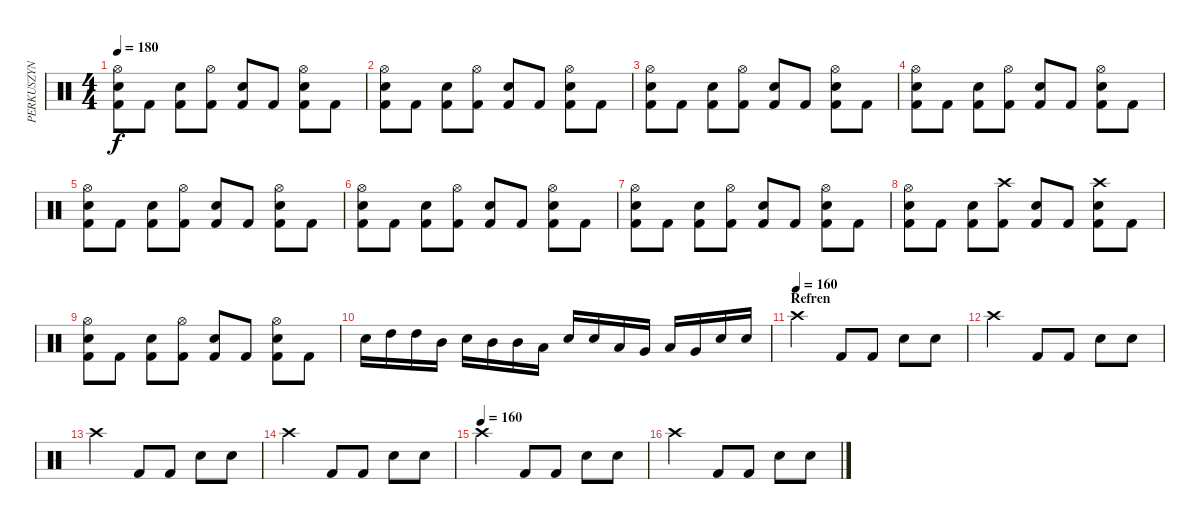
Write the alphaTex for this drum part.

\track ("PERKUSZYN" "PERKUSZYN") {instrument percussion}
\staff {score}
\articulation defaults
\ts (4 4)
\tempo 180
\clef neutral
\ks c
("Kick (hit) 2" "Electric Snare (hit)" "Hi-Hat (open)").8{dy f} "Kick (hit) 2".8 ("Kick (hit) 2" "Electric Snare (hit)").8 ("Kick (hit) 2" "Hi-Hat (open)").8 ("Kick (hit) 2" "Electric Snare (hit)").8 "Kick (hit) 2".8 ("Kick (hit) 2" "Electric Snare (hit)" "Hi-Hat (open)").8 "Kick (hit) 2".8 |
("Kick (hit) 2" "Electric Snare (hit)" "Hi-Hat (open)").8 "Kick (hit) 2".8 ("Kick (hit) 2" "Electric Snare (hit)").8 ("Kick (hit) 2" "Hi-Hat (open)").8 ("Kick (hit) 2" "Electric Snare (hit)").8 "Kick (hit) 2".8 ("Kick (hit) 2" "Electric Snare (hit)" "Hi-Hat (open)").8 "Kick (hit) 2".8 |
("Kick (hit) 2" "Electric Snare (hit)" "Hi-Hat (open)").8 "Kick (hit) 2".8 ("Kick (hit) 2" "Electric Snare (hit)").8 ("Kick (hit) 2" "Hi-Hat (open)").8 ("Kick (hit) 2" "Electric Snare (hit)").8 "Kick (hit) 2".8 ("Kick (hit) 2" "Electric Snare (hit)" "Hi-Hat (open)").8 "Kick (hit) 2".8 |
("Kick (hit) 2" "Electric Snare (hit)" "Hi-Hat (open)").8 "Kick (hit) 2".8 ("Kick (hit) 2" "Electric Snare (hit)").8 ("Kick (hit) 2" "Hi-Hat (open)").8 ("Kick (hit) 2" "Electric Snare (hit)").8 "Kick (hit) 2".8 ("Kick (hit) 2" "Electric Snare (hit)" "Hi-Hat (open)").8 "Kick (hit) 2".8 |
("Kick (hit) 2" "Electric Snare (hit)" "Hi-Hat (open)").8 "Kick (hit) 2".8 ("Kick (hit) 2" "Electric Snare (hit)").8 ("Kick (hit) 2" "Hi-Hat (open)").8 ("Kick (hit) 2" "Electric Snare (hit)").8 "Kick (hit) 2".8 ("Kick (hit) 2" "Electric Snare (hit)" "Hi-Hat (open)").8 "Kick (hit) 2".8 |
("Kick (hit) 2" "Electric Snare (hit)" "Hi-Hat (open)").8 "Kick (hit) 2".8 ("Kick (hit) 2" "Electric Snare (hit)").8 ("Kick (hit) 2" "Hi-Hat (open)").8 ("Kick (hit) 2" "Electric Snare (hit)").8 "Kick (hit) 2".8 ("Kick (hit) 2" "Electric Snare (hit)" "Hi-Hat (open)").8 "Kick (hit) 2".8 |
("Kick (hit) 2" "Electric Snare (hit)" "Hi-Hat (open)").8 "Kick (hit) 2".8 ("Kick (hit) 2" "Electric Snare (hit)").8 ("Kick (hit) 2" "Hi-Hat (open)").8 ("Kick (hit) 2" "Electric Snare (hit)").8 "Kick (hit) 2".8 ("Kick (hit) 2" "Electric Snare (hit)" "Hi-Hat (open)").8 "Kick (hit) 2".8 |
("Kick (hit) 2" "Electric Snare (hit)" "Hi-Hat (open)").8 "Kick (hit) 2".8 ("Kick (hit) 2" "Electric Snare (hit)").8 ("Kick (hit) 2" "Crash high (hit)").8 ("Kick (hit) 2" "Electric Snare (hit)").8 "Kick (hit) 2".8 ("Kick (hit) 2" "Electric Snare (hit)" "Crash high (hit)").8 "Kick (hit) 2".8 |
("Kick (hit) 2" "Electric Snare (hit)" "Hi-Hat (open)").8 "Kick (hit) 2".8 ("Kick (hit) 2" "Electric Snare (hit)").8 ("Kick (hit) 2" "Hi-Hat (open)").8 ("Kick (hit) 2" "Electric Snare (hit)").8 "Kick (hit) 2".8 ("Kick (hit) 2" "Electric Snare (hit)" "Hi-Hat (open)").8 "Kick (hit) 2".8 |
"Electric Snare (hit)".16 "High Tom (hit)".16 "High Tom (hit)".16 "Mid Tom (hit)".16 "Electric Snare (hit)".16 "Mid Tom (hit)".16 "Mid Tom (hit)".16 "Low Tom (hit)".16 "Electric Snare (hit)".16 "Electric Snare (hit)".16 "Low Tom (hit)".16 "Very Low Tom (hit)".16 "Low Tom (hit)".16 "Very Low Tom (hit)".16 "Electric Snare (hit)".16 "Electric Snare (hit)".16 |
\section ("" "Refren")
\tempo (160)
"Crash high (hit)".2 "Kick (hit) 2".8 "Kick (hit) 2".8 "Snare (hit) 2".8 "Snare (hit) 2".8 |
"Crash high (hit)".2 "Kick (hit) 2".8 "Kick (hit) 2".8 "Snare (hit) 2".8 "Snare (hit) 2".8 |
"Crash high (hit)".2 "Kick (hit) 2".8 "Kick (hit) 2".8 "Snare (hit) 2".8 "Snare (hit) 2".8 |
"Crash high (hit)".2 "Kick (hit) 2".8 "Kick (hit) 2".8 "Snare (hit) 2".8 "Snare (hit) 2".8 |
\tempo (160)
"Crash high (hit)".2 "Kick (hit) 2".8 "Kick (hit) 2".8 "Snare (hit) 2".8 "Snare (hit) 2".8 |
"Crash high (hit)".2 "Kick (hit) 2".8 "Kick (hit) 2".8 "Snare (hit) 2".8 "Snare (hit) 2".8
